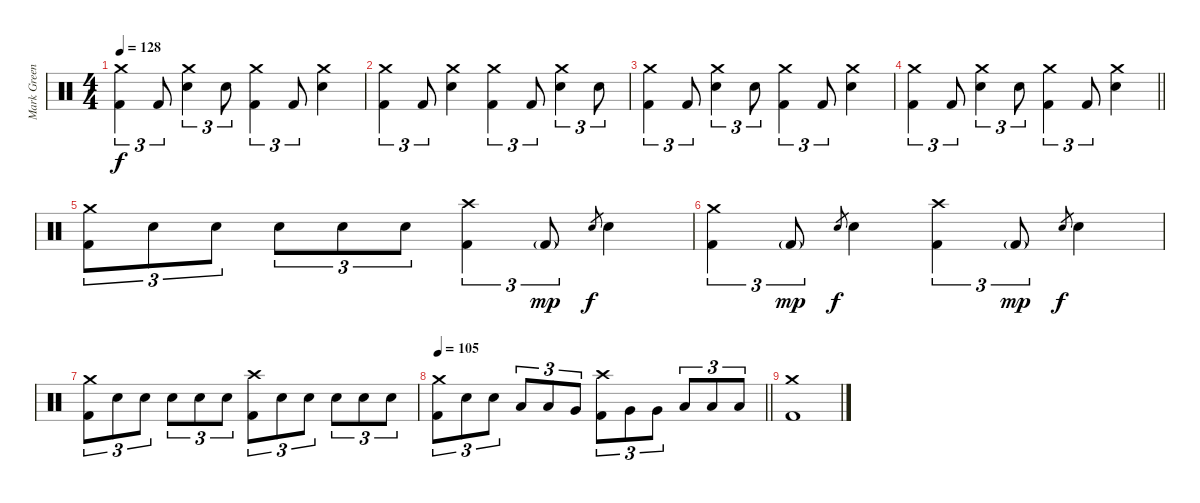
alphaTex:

\track ("Mark Greening" "Mark Green") {instrument percussion}
\staff {score}
\articulation defaults
\ts (4 4)
\tempo 128
\clef neutral
\ks c
("Crash medium (hit)" "Kick (hit) 2").4{tu (3 2) dy f} "Kick (hit) 2".8{tu (3 2)} ("Crash medium (hit)" "Electric Snare (hit)").4{tu (3 2)} "Electric Snare (hit)".8{tu (3 2)} ("Crash medium (hit)" "Kick (hit) 2").4{tu (3 2)} "Kick (hit) 2".8{tu (3 2)} ("Crash medium (hit)" "Electric Snare (hit)").4 |
("Crash medium (hit)" "Kick (hit) 2").4{tu (3 2)} "Kick (hit) 2".8{tu (3 2)} ("Crash medium (hit)" "Electric Snare (hit)").4 ("Crash medium (hit)" "Kick (hit) 2").4{tu (3 2)} "Kick (hit) 2".8{tu (3 2)} ("Crash medium (hit)" "Electric Snare (hit)").4{tu (3 2)} "Electric Snare (hit)".8{tu (3 2)} |
("Crash medium (hit)" "Kick (hit) 2").4{tu (3 2)} "Kick (hit) 2".8{tu (3 2)} ("Crash medium (hit)" "Electric Snare (hit)").4{tu (3 2)} "Electric Snare (hit)".8{tu (3 2)} ("Crash medium (hit)" "Kick (hit) 2").4{tu (3 2)} "Kick (hit) 2".8{tu (3 2)} ("Crash medium (hit)" "Electric Snare (hit)").4 |
\barLineRight lightlight
("Crash medium (hit)" "Kick (hit) 2").4{tu (3 2)} "Kick (hit) 2".8{tu (3 2)} ("Crash medium (hit)" "Electric Snare (hit)").4{tu (3 2)} "Electric Snare (hit)".8{tu (3 2)} ("Crash medium (hit)" "Kick (hit) 2").4{tu (3 2)} "Kick (hit) 2".8{tu (3 2)} ("Crash medium (hit)" "Electric Snare (hit)").4 |
\section ("" "")
("Crash medium (hit)" "Kick (hit) 2").8{tu (3 2)} "Electric Snare (hit)".8{tu (3 2)} "Electric Snare (hit)".8{tu (3 2)} "Electric Snare (hit)".8{tu (3 2)} "Electric Snare (hit)".8{tu (3 2)} "Electric Snare (hit)".8{tu (3 2)} ("Crash high (hit)" "Kick (hit) 2").4{tu (3 2)} "Kick (hit) 2"{g}.8{tu (3 2) dy mp} "Electric Snare (hit)".8{gr dy f} "Electric Snare (hit)".4 |
("Crash medium (hit)" "Kick (hit) 2").4{tu (3 2)} "Kick (hit) 2"{g}.8{tu (3 2) dy mp} "Electric Snare (hit)".8{gr dy f} "Electric Snare (hit)".4 ("Crash high (hit)" "Kick (hit) 2").4{tu (3 2)} "Kick (hit) 2"{g}.8{tu (3 2) dy mp} "Electric Snare (hit)".8{gr dy f} "Electric Snare (hit)".4 |
("Crash medium (hit)" "Kick (hit) 2").8{tu (3 2)} "Electric Snare (hit)".8{tu (3 2)} "Electric Snare (hit)".8{tu (3 2)} "Electric Snare (hit)".8{tu (3 2)} "Electric Snare (hit)".8{tu (3 2)} "Electric Snare (hit)".8{tu (3 2)} ("Crash high (hit)" "Kick (hit) 2").8{tu (3 2)} "Electric Snare (hit)".8{tu (3 2)} "Electric Snare (hit)".8{tu (3 2)} "Electric Snare (hit)".8{tu (3 2)} "Electric Snare (hit)".8{tu (3 2)} "Electric Snare (hit)".8{tu (3 2)} |
\tempo 105
\barLineRight lightlight
("Crash medium (hit)" "Kick (hit) 2").8{tu (3 2)} "Electric Snare (hit)".8{tu (3 2)} "Electric Snare (hit)".8{tu (3 2)} "Low Tom (hit)".8{tu (3 2)} "Low Tom (hit)".8{tu (3 2)} "Very Low Tom (hit)".8{tu (3 2)} ("Crash high (hit)" "Kick (hit) 2").8{tu (3 2)} "Very Low Tom (hit)".8{tu (3 2)} "Very Low Tom (hit)".8{tu (3 2)} "Low Floor Tom (hit)".8{tu (3 2)} "Low Floor Tom (hit)".8{tu (3 2)} "Low Floor Tom (hit)".8{tu (3 2)} |
("Crash medium (hit)" "Kick (hit) 2").1
